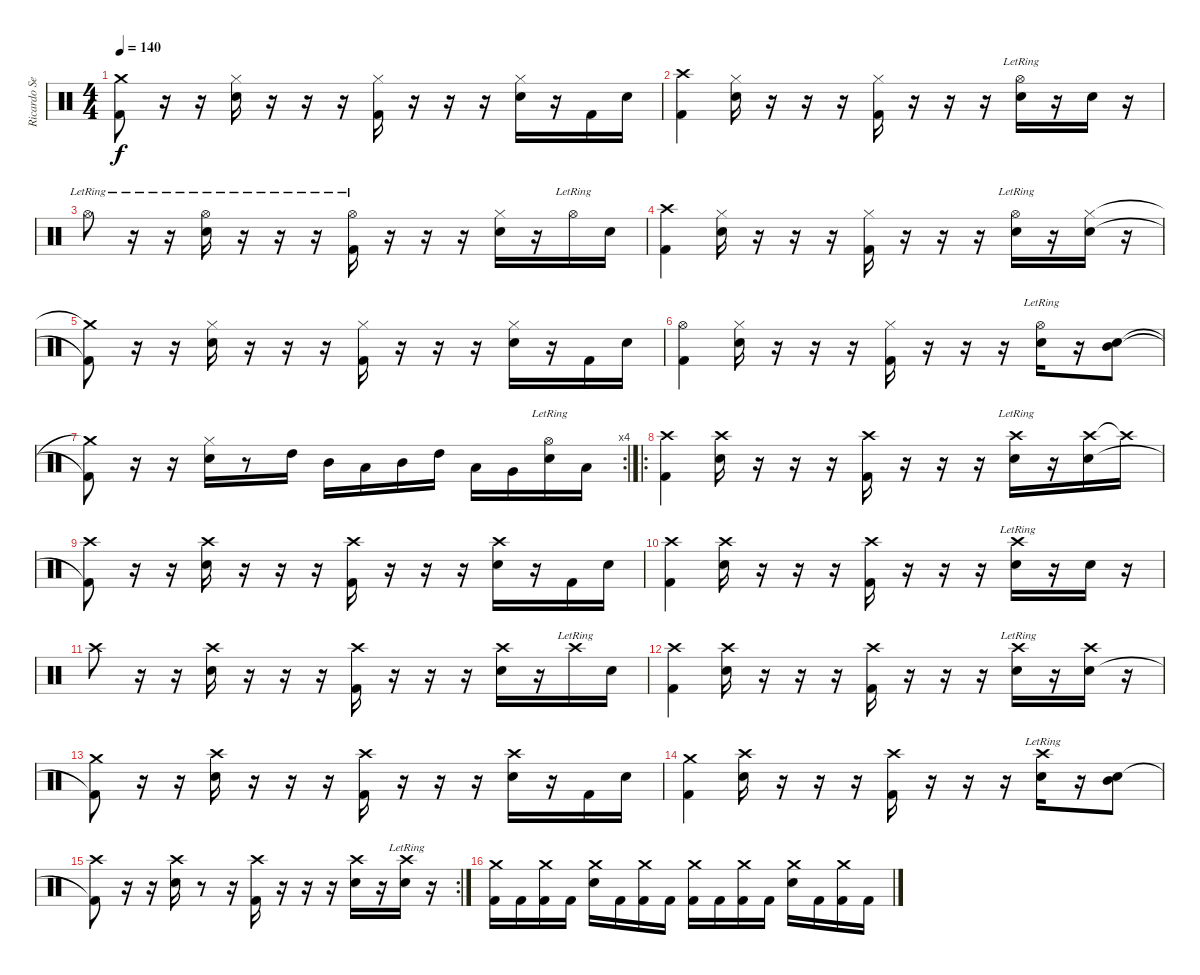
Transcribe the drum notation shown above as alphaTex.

\track ("Ricardo Severino" "Ricardo Se") {instrument percussion}
\staff {score}
\articulation defaults
\ts (4 4)
\tempo 140
\clef neutral
\ks c
("Crash medium (hit)" "Kick (hit) 2"{t}).8{dy f} r.16 r.16 ("Hi-Hat (closed)" "Snare (hit) 2").16 r.16 r.16 r.16 ("Hi-Hat (closed)" "Kick (hit) 2").16 r.16 r.16 r.16 ("Hi-Hat (closed)" "Snare (hit) 2").16 r.16 "Kick (hit) 2".16 "Snare (hit) 2".16 |
("Crash high (hit)" "Kick (hit) 2").4 ("Hi-Hat (closed)" "Snare (hit) 2").16 r.16 r.16 r.16 ("Hi-Hat (closed)" "Kick (hit) 2").16 r.16 r.16 r.16 ("Hi-Hat (open)"{lr} "Snare (hit) 2").16 r.16 "Snare (hit) 2".16 r.16 |
"Hi-Hat (open)"{lr}.8 r.16 r.16 ("Hi-Hat (open)"{lr} "Snare (hit) 2").16 r.16 r.16 r.16 ("Hi-Hat (open)"{lr} "Kick (hit) 2").16 r.16 r.16 r.16 ("Hi-Hat (closed)" "Snare (hit) 2").16 r.16 "Hi-Hat (open)"{lr}.16 "Snare (hit) 2".16 |
("Crash high (hit)" "Kick (hit) 2").4 ("Hi-Hat (closed)" "Snare (hit) 2").16 r.16 r.16 r.16 ("Hi-Hat (closed)" "Kick (hit) 2").16 r.16 r.16 r.16 ("Hi-Hat (open)"{lr} "Snare (hit) 2").16 r.16 ("Hi-Hat (closed)" "Snare (hit) 2").16 r.16 |
("Crash medium (hit)"{t} "Kick (hit) 2"{t}).8 r.16 r.16 ("Hi-Hat (closed)" "Snare (hit) 2").16 r.16 r.16 r.16 ("Hi-Hat (closed)" "Kick (hit) 2").16 r.16 r.16 r.16 ("Hi-Hat (closed)" "Snare (hit) 2").16 r.16 "Kick (hit) 2".16 "Snare (hit) 2".16 |
("Hi-Hat (open)" "Kick (hit) 2").4 ("Hi-Hat (closed)" "Snare (hit) 2").16 r.16 r.16 r.16 ("Hi-Hat (closed)" "Kick (hit) 2").16 r.16 r.16 r.16 ("Hi-Hat (open)"{lr} "Snare (hit) 2").16 r.16 ("Mid Tom (hit)" "Snare (hit) 2").8 |
\rc 4
("Crash medium (hit)"{t} "Kick (hit) 2"{t}).8 r.16 r.16 ("Hi-Hat (closed)" "Snare (hit) 2").16 r.8 "High Tom (hit)".16 "Mid Tom (hit)".16 "Low Tom (hit)".16 "Mid Tom (hit)".16 "High Tom (hit)".16 "Low Tom (hit)".16 "Very Low Tom (hit)".16 ("Hi-Hat (open)"{lr} "Snare (hit) 2").16 "Low Floor Tom (hit)".16 |
\ro
("Crash high (hit)" "Kick (hit) 2").4 ("Crash high (hit)" "Snare (hit) 2").16 r.16 r.16 r.16 ("Crash high (hit)" "Kick (hit) 2").16 r.16 r.16 r.16 ("Crash high (hit)"{lr} "Snare (hit) 2").16 r.16 ("Crash high (hit)" "Snare (hit) 2").16 "Crash high (hit)"{t}.16 |
("Crash high (hit)" "Kick (hit) 2"{t}).8 r.16 r.16 ("Crash high (hit)" "Snare (hit) 2").16 r.16 r.16 r.16 ("Crash high (hit)" "Kick (hit) 2").16 r.16 r.16 r.16 ("Crash high (hit)" "Snare (hit) 2").16 r.16 "Kick (hit) 2".16 "Snare (hit) 2".16 |
("Crash high (hit)" "Kick (hit) 2").4 ("Crash high (hit)" "Snare (hit) 2").16 r.16 r.16 r.16 ("Crash high (hit)" "Kick (hit) 2").16 r.16 r.16 r.16 ("Crash high (hit)"{lr} "Snare (hit) 2").16 r.16 "Snare (hit) 2".16 r.16 |
"Crash high (hit)".8 r.16 r.16 ("Crash high (hit)" "Snare (hit) 2").16 r.16 r.16 r.16 ("Crash high (hit)" "Kick (hit) 2").16 r.16 r.16 r.16 ("Crash high (hit)" "Snare (hit) 2").16 r.16 "Crash high (hit)"{lr}.16 "Snare (hit) 2".16 |
("Crash high (hit)" "Kick (hit) 2").4 ("Crash high (hit)" "Snare (hit) 2").16 r.16 r.16 r.16 ("Crash high (hit)" "Kick (hit) 2").16 r.16 r.16 r.16 ("Crash high (hit)"{lr} "Snare (hit) 2").16 r.16 ("Crash high (hit)" "Snare (hit) 2").16 r.16 |
("Crash medium (hit)" "Kick (hit) 2"{t}).8 r.16 r.16 ("Crash high (hit)" "Snare (hit) 2").16 r.16 r.16 r.16 ("Crash high (hit)" "Kick (hit) 2").16 r.16 r.16 r.16 ("Crash high (hit)" "Snare (hit) 2").16 r.16 "Kick (hit) 2".16 "Snare (hit) 2".16 |
("Crash medium (hit)" "Kick (hit) 2").4 ("Crash high (hit)" "Snare (hit) 2").16 r.16 r.16 r.16 ("Crash high (hit)" "Kick (hit) 2").16 r.16 r.16 r.16 ("Crash high (hit)"{lr} "Snare (hit) 2").16 r.16 ("Mid Tom (hit)" "Snare (hit) 2").8 |
\rc 2
("Crash high (hit)" "Kick (hit) 2"{t}).8 r.16 r.16 ("Crash high (hit)" "Snare (hit) 2").16 r.8 r.16 ("Crash high (hit)" "Kick (hit) 2").16 r.16 r.16 r.16 ("Crash high (hit)" "Snare (hit) 2").16 r.16 ("Crash high (hit)"{lr} "Snare (hit) 2").16 r.16 |
("Crash medium (hit)" "Kick (hit) 2").16 "Kick (hit) 2".16 ("Crash medium (hit)" "Kick (hit) 2").16 "Kick (hit) 2".16 ("Crash medium (hit)" "Snare (hit) 2").16 "Kick (hit) 2".16 ("Crash medium (hit)" "Kick (hit) 2").16 "Kick (hit) 2".16 ("Crash medium (hit)" "Kick (hit) 2").16 "Kick (hit) 2".16 ("Crash medium (hit)" "Kick (hit) 2").16 "Kick (hit) 2".16 ("Crash medium (hit)" "Snare (hit) 2").16 "Kick (hit) 2".16 ("Crash medium (hit)" "Kick (hit) 2").16 "Kick (hit) 2".16
